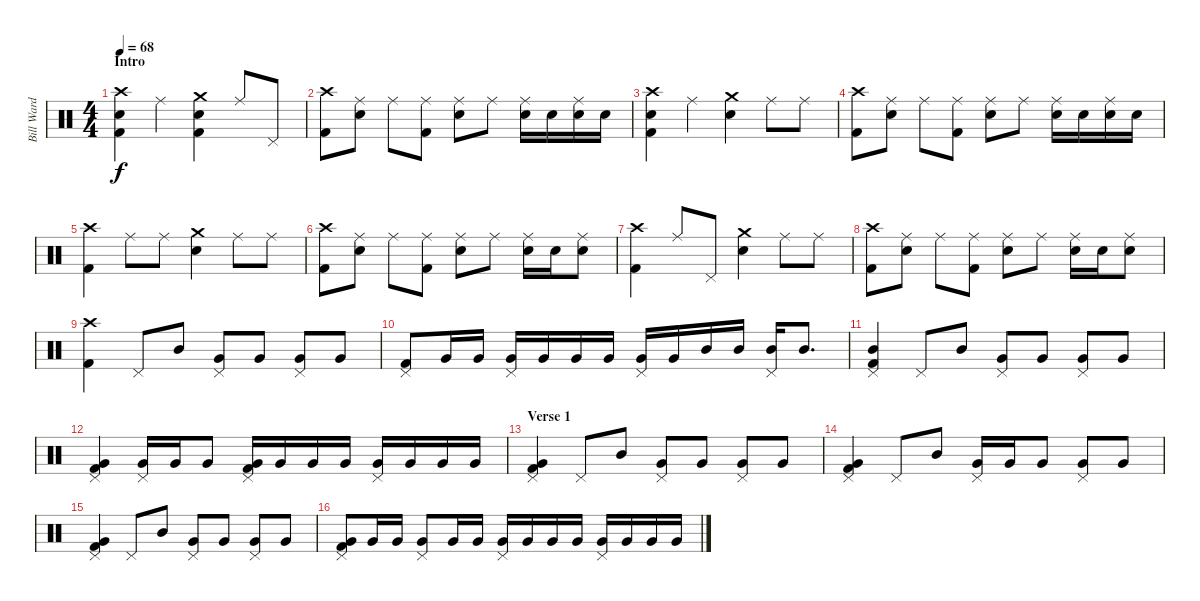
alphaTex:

\track ("Bill Ward - Drums" "Bill Ward ") {instrument percussion}
\staff {score}
\articulation defaults
\ts (4 4)
\section ("" "Intro")
\tempo 68
\clef neutral
\ks c
("Crash high (hit)" "Snare (hit) 2" "Kick (hit) 2").4{dy f} "Ride (middle)".4 ("Crash medium (hit)" "Snare (hit) 2" "Kick (hit) 2").4 "Ride (middle)".8 "Pedal Hi-Hat (hit)".8 |
("Crash high (hit)" "Kick (hit) 2").8 ("Ride (middle)" "Snare (hit) 2").8 "Ride (middle)".8 ("Ride (middle)" "Kick (hit) 2").8 ("Ride (middle)" "Snare (hit) 2").8 "Ride (middle)".8 ("Ride (middle)" "Snare (hit) 2").16 "Snare (hit) 2".16 ("Ride (middle)" "Snare (hit) 2").16 "Snare (hit) 2".16 |
("Crash high (hit)" "Snare (hit) 2" "Kick (hit) 2").4 "Ride (middle)".4 ("Crash medium (hit)" "Snare (hit) 2").4 "Ride (middle)".8 "Ride (middle)".8 |
("Crash high (hit)" "Kick (hit) 2").8 ("Ride (middle)" "Snare (hit) 2").8 "Ride (middle)".8 ("Ride (middle)" "Kick (hit) 2").8 ("Ride (middle)" "Snare (hit) 2").8 "Ride (middle)".8 ("Ride (middle)" "Snare (hit) 2").16 "Snare (hit) 2".16 ("Ride (middle)" "Snare (hit) 2").16 "Snare (hit) 2".16 |
("Crash high (hit)" "Kick (hit) 2").4 "Ride (middle)".8 "Ride (middle)".8 ("Crash medium (hit)" "Snare (hit) 2").4 "Ride (middle)".8 "Ride (middle)".8 |
("Crash high (hit)" "Kick (hit) 2").8 ("Ride (middle)" "Snare (hit) 2").8 "Ride (middle)".8 ("Ride (middle)" "Kick (hit) 2").8 ("Ride (middle)" "Snare (hit) 2").8 "Ride (middle)".8 ("Ride (middle)" "Snare (hit) 2").16 "Snare (hit) 2".16 ("Ride (middle)" "Snare (hit) 2").8 |
("Crash high (hit)" "Kick (hit) 2").4 "Ride (middle)".8 "Pedal Hi-Hat (hit)".8 ("Crash medium (hit)" "Snare (hit) 2").4 "Ride (middle)".8 "Ride (middle)".8 |
("Crash high (hit)" "Kick (hit) 2").8 ("Ride (middle)" "Snare (hit) 2").8 "Ride (middle)".8 ("Ride (middle)" "Kick (hit) 2").8 ("Ride (middle)" "Snare (hit) 2").8 "Ride (middle)".8 ("Ride (middle)" "Snare (hit) 2").16 "Snare (hit) 2".16 ("Ride (middle)" "Snare (hit) 2").8 |
("Crash high (hit)" "Kick (hit) 2").4 "Pedal Hi-Hat (hit)".8 "Mid Tom (hit)".8 ("Pedal Hi-Hat (hit)" "Very Low Tom (hit)").8 "Very Low Tom (hit)".8 ("Pedal Hi-Hat (hit)" "Very Low Tom (hit)").8 "Very Low Tom (hit)".8 |
("Pedal Hi-Hat (hit)" "Kick (hit) 2").8 "Very Low Tom (hit)".16 "Very Low Tom (hit)".16 ("Pedal Hi-Hat (hit)" "Very Low Tom (hit)").16 "Very Low Tom (hit)".16 "Very Low Tom (hit)".16 "Very Low Tom (hit)".16 ("Pedal Hi-Hat (hit)" "Very Low Tom (hit)").16 "Very Low Tom (hit)".16 "Mid Tom (hit)".16 "Mid Tom (hit)".16 ("Pedal Hi-Hat (hit)" "Mid Tom (hit)").16 "Mid Tom (hit)".8{d} |
("Pedal Hi-Hat (hit)" "Mid Tom (hit)" "Kick (hit) 2").4 "Pedal Hi-Hat (hit)".8 "Mid Tom (hit)".8 ("Pedal Hi-Hat (hit)" "Very Low Tom (hit)").8 "Very Low Tom (hit)".8 ("Pedal Hi-Hat (hit)" "Very Low Tom (hit)").8 "Very Low Tom (hit)".8 |
("Pedal Hi-Hat (hit)" "Very Low Tom (hit)" "Kick (hit) 2").4 ("Pedal Hi-Hat (hit)" "Very Low Tom (hit)").16 "Very Low Tom (hit)".16 "Very Low Tom (hit)".8 ("Pedal Hi-Hat (hit)" "Very Low Tom (hit)" "Kick (hit) 2").16 "Very Low Tom (hit)".16 "Very Low Tom (hit)".16 "Very Low Tom (hit)".16 ("Pedal Hi-Hat (hit)" "Very Low Tom (hit)").16 "Very Low Tom (hit)".16 "Very Low Tom (hit)".16 "Very Low Tom (hit)".16 |
\section ("" "Verse 1")
("Pedal Hi-Hat (hit)" "Very Low Tom (hit)" "Kick (hit) 2").4 "Pedal Hi-Hat (hit)".8 "Mid Tom (hit)".8 ("Pedal Hi-Hat (hit)" "Very Low Tom (hit)").8 "Very Low Tom (hit)".8 ("Pedal Hi-Hat (hit)" "Very Low Tom (hit)").8 "Very Low Tom (hit)".8 |
("Pedal Hi-Hat (hit)" "Very Low Tom (hit)" "Kick (hit) 2").4 "Pedal Hi-Hat (hit)".8 "Mid Tom (hit)".8 ("Pedal Hi-Hat (hit)" "Very Low Tom (hit)").16 "Very Low Tom (hit)".16 "Very Low Tom (hit)".8 ("Pedal Hi-Hat (hit)" "Very Low Tom (hit)").8 "Very Low Tom (hit)".8 |
("Pedal Hi-Hat (hit)" "Very Low Tom (hit)" "Kick (hit) 2").4 "Pedal Hi-Hat (hit)".8 "Mid Tom (hit)".8 ("Pedal Hi-Hat (hit)" "Very Low Tom (hit)").8 "Very Low Tom (hit)".8 ("Pedal Hi-Hat (hit)" "Very Low Tom (hit)").8 "Very Low Tom (hit)".8 |
("Pedal Hi-Hat (hit)" "Very Low Tom (hit)" "Kick (hit) 2").8 "Very Low Tom (hit)".16 "Very Low Tom (hit)".16 ("Pedal Hi-Hat (hit)" "Very Low Tom (hit)").8 "Very Low Tom (hit)".16 "Very Low Tom (hit)".16 ("Pedal Hi-Hat (hit)" "Very Low Tom (hit)").16 "Very Low Tom (hit)".16 "Very Low Tom (hit)".16 "Very Low Tom (hit)".16 ("Pedal Hi-Hat (hit)" "Very Low Tom (hit)").16 "Very Low Tom (hit)".16 "Very Low Tom (hit)".16 "Very Low Tom (hit)".16
